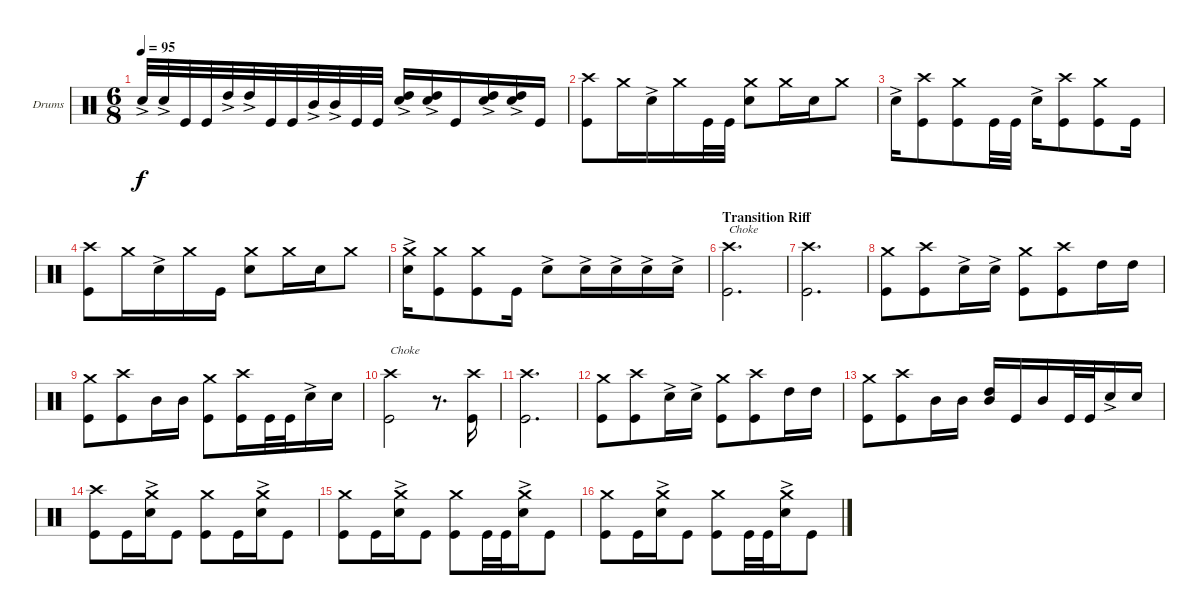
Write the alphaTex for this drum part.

\bracketExtendMode groupsimilarinstruments
\firstSystemTrackNameOrientation horizontal
\otherSystemsTrackNameOrientation horizontal
\track ("Drumkit" "Drums") {instrument percussion}
\staff {score}
\articulation defaults
\ts (6 8)
\tempo 95
\clef neutral
\ks c "Snare (hit) 2"{ac}.32{dy f} "Snare (hit) 2"{ac}.32 "Kick (hit)".32 "Kick (hit)".32 "High Tom (hit)"{ac}.32 "High Tom (hit)"{ac}.32 "Kick (hit)".32 "Kick (hit)".32 "Mid Tom (hit)"{ac}.32 "Mid Tom (hit)"{ac}.32 "Kick (hit)".32 "Kick (hit)".32
("Snare (hit) 2"{ac} "High Tom (hit)").16 ("Snare (hit) 2"{ac} "High Tom (hit)").16 "Kick (hit)".16 ("Snare (hit) 2"{ac} "High Tom (hit)").16 ("Snare (hit) 2"{ac} "High Tom (hit)").16 "Kick (hit)".16 |
("Crash high (hit)" "Kick (hit)").8 "Crash medium (hit)".16 "Snare (hit) 2"{ac}.16 "Crash medium (hit)".16 "Kick (hit)".32 "Kick (hit)".32 ("Snare (hit) 2" "Crash medium (hit)").8 "Crash medium (hit)".16 "Snare (hit) 2".16 "Crash medium (hit)".8 |
"Snare (hit) 2"{ac}.16 ("Kick (hit)" "Crash high (hit)").8 ("Kick (hit)" "Crash medium (hit)").8 "Kick (hit)".32 "Kick (hit)".32 "Snare (hit) 2"{ac}.16 ("Kick (hit)" "Crash high (hit)").8 ("Kick (hit)" "Crash medium (hit)").8 "Kick (hit)".16 |
("Crash high (hit)" "Kick (hit)").8 "Crash medium (hit)".16 "Snare (hit) 2"{ac}.16 "Crash medium (hit)".16 "Kick (hit)".16 ("Snare (hit) 2" "Crash medium (hit)").8 "Crash medium (hit)".16 "Snare (hit) 2".16 "Crash medium (hit)".8 |
("Snare (hit) 2"{ac} "Crash medium (hit)").16 ("Kick (hit)" "Crash medium (hit)").8 ("Kick (hit)" "Crash medium (hit)").8 "Kick (hit)".16 "Snare (hit) 2"{ac}.8 "Snare (hit) 2"{ac}.16 "Snare (hit) 2"{ac}.16 "Snare (hit) 2"{ac}.16 "Snare (hit) 2"{ac}.16 |
\section ("" "Transition Riff")
("Kick (hit)" "Crash high (hit)").2{d txt "Choke"} |
("Kick (hit)" "Crash high (hit)").2{d} |
("Kick (hit)" "Crash medium (hit)").8 ("Kick (hit)" "Crash high (hit)").8 "Snare (hit) 2"{ac}.16 "Snare (hit) 2"{ac}.16 ("Kick (hit)" "Crash medium (hit)").8 ("Kick (hit)" "Crash high (hit)").8 "High Tom (hit)".16 "High Tom (hit)".16 |
("Kick (hit)" "Crash medium (hit)").8 ("Kick (hit)" "Crash high (hit)").8 "Mid Tom (hit)".16 "Mid Tom (hit)".16 ("Kick (hit)" "Crash medium (hit)").8 ("Kick (hit)" "Crash high (hit)").16 "Kick (hit)".32 "Kick (hit)".32 "Snare (hit) 2"{ac}.16 "Snare (hit) 2".16 |
("Kick (hit)" "Crash high (hit)").2{txt "Choke"} r.8{d} ("Kick (hit)" "Crash high (hit)").16 |
("Kick (hit)" "Crash high (hit)").2{d} |
("Kick (hit)" "Crash medium (hit)").8 ("Kick (hit)" "Crash high (hit)").8 "Snare (hit) 2"{ac}.16 "Snare (hit) 2"{ac}.16 ("Kick (hit)" "Crash medium (hit)").8 ("Kick (hit)" "Crash high (hit)").8 "High Tom (hit)".16 "High Tom (hit)".16 |
("Kick (hit)" "Crash medium (hit)").8 ("Kick (hit)" "Crash high (hit)").8 "Mid Tom (hit)".16 "Mid Tom (hit)".16 ("Mid Tom (hit)" "High Tom (hit)").16 "Kick (hit)".16 "Mid Tom (hit)".16 "Kick (hit)".32 "Kick (hit)".32 "Snare (hit) 2"{ac}.16 "Snare (hit) 2".16 |
("Kick (hit)" "Crash high (hit)").8 "Kick (hit)".16 ("Snare (hit) 2"{ac} "Crash medium (hit)").16 "Kick (hit)".8 ("Kick (hit)" "Crash medium (hit)").8 "Kick (hit)".16 ("Snare (hit) 2"{ac} "Crash medium (hit)").16 "Kick (hit)".8 |
("Kick (hit)" "Crash medium (hit)").8 "Kick (hit)".16 ("Snare (hit) 2"{ac} "Crash medium (hit)").16 "Kick (hit)".8 ("Kick (hit)" "Crash medium (hit)").8 "Kick (hit)".32 "Kick (hit)".32 ("Snare (hit) 2"{ac} "Crash medium (hit)").16 "Kick (hit)".8 |
("Kick (hit)" "Crash medium (hit)").8 "Kick (hit)".16 ("Snare (hit) 2"{ac} "Crash medium (hit)").16 "Kick (hit)".8 ("Kick (hit)" "Crash medium (hit)").8 "Kick (hit)".32 "Kick (hit)".32 ("Snare (hit) 2"{ac} "Crash medium (hit)").16 "Kick (hit)".8
